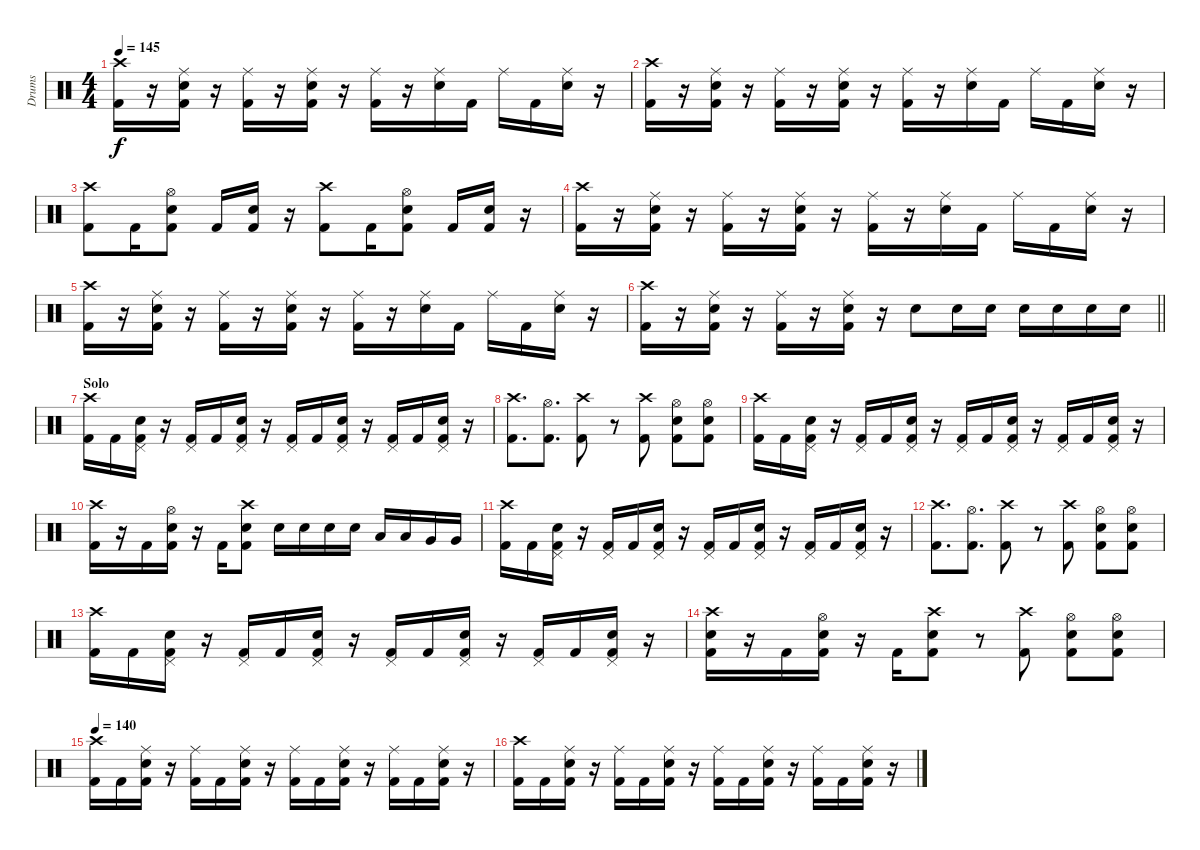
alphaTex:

\track ("Drums" "Drums") {instrument percussion}
\staff {score}
\articulation defaults
\ts (4 4)
\tempo 145
\clef neutral
\ks c
("Crash high (hit)" "Kick (hit) 2").16{dy f} r.16 ("Ride (middle)" "Snare (hit) 2" "Kick (hit) 2").16 r.16 ("Ride (middle)" "Kick (hit) 2").16 r.16 ("Ride (middle)" "Snare (hit) 2" "Kick (hit) 2").16 r.16 ("Ride (middle)" "Kick (hit) 2").16 r.16 ("Ride (middle)" "Snare (hit) 2").16 "Kick (hit) 2".16 "Ride (middle)".16 "Kick (hit) 2".16 ("Ride (middle)" "Snare (hit) 2").16 r.16 |
("Crash high (hit)" "Kick (hit) 2").16 r.16 ("Ride (middle)" "Snare (hit) 2" "Kick (hit) 2").16 r.16 ("Ride (middle)" "Kick (hit) 2").16 r.16 ("Ride (middle)" "Snare (hit) 2" "Kick (hit) 2").16 r.16 ("Ride (middle)" "Kick (hit) 2").16 r.16 ("Ride (middle)" "Snare (hit) 2").16 "Kick (hit) 2".16 "Ride (middle)".16 "Kick (hit) 2".16 ("Ride (middle)" "Snare (hit) 2").16 r.16 |
("Crash high (hit)" "Kick (hit) 2").8 "Kick (hit) 2".16 ("Hi-Hat (open)" "Snare (hit) 2" "Kick (hit) 2").8 "Kick (hit) 2".16 ("Snare (hit) 2" "Kick (hit) 2").16 r.16 ("Crash high (hit)" "Kick (hit) 2").8 "Kick (hit) 2".16 ("Hi-Hat (open)" "Snare (hit) 2" "Kick (hit) 2").8 "Kick (hit) 2".16 ("Snare (hit) 2" "Kick (hit) 2").16 r.16 |
("Crash high (hit)" "Kick (hit) 2").16 r.16 ("Ride (middle)" "Snare (hit) 2" "Kick (hit) 2").16 r.16 ("Ride (middle)" "Kick (hit) 2").16 r.16 ("Ride (middle)" "Snare (hit) 2" "Kick (hit) 2").16 r.16 ("Ride (middle)" "Kick (hit) 2").16 r.16 ("Ride (middle)" "Snare (hit) 2").16 "Kick (hit) 2".16 "Ride (middle)".16 "Kick (hit) 2".16 ("Ride (middle)" "Snare (hit) 2").16 r.16 |
("Crash high (hit)" "Kick (hit) 2").16 r.16 ("Ride (middle)" "Snare (hit) 2" "Kick (hit) 2").16 r.16 ("Ride (middle)" "Kick (hit) 2").16 r.16 ("Ride (middle)" "Snare (hit) 2" "Kick (hit) 2").16 r.16 ("Ride (middle)" "Kick (hit) 2").16 r.16 ("Ride (middle)" "Snare (hit) 2").16 "Kick (hit) 2".16 "Ride (middle)".16 "Kick (hit) 2".16 ("Ride (middle)" "Snare (hit) 2").16 r.16 |
\barLineRight lightlight
("Crash high (hit)" "Kick (hit) 2").16 r.16 ("Ride (middle)" "Snare (hit) 2" "Kick (hit) 2").16 r.16 ("Ride (middle)" "Kick (hit) 2").16 r.16 ("Ride (middle)" "Snare (hit) 2" "Kick (hit) 2").16 r.16 "Snare (hit) 2".8 "Snare (hit) 2".16 "Snare (hit) 2".16 "Snare (hit) 2".16 "Snare (hit) 2".16 "Snare (hit) 2".16 "Snare (hit) 2".16 |
\section ("" "Solo")
("Crash high (hit)" "Kick (hit) 2").16 "Kick (hit) 2".16 ("Pedal Hi-Hat (hit)" "Snare (hit) 2" "Kick (hit) 2").16 r.16 ("Pedal Hi-Hat (hit)" "Kick (hit) 2").16 "Kick (hit) 2".16 ("Pedal Hi-Hat (hit)" "Snare (hit) 2" "Kick (hit) 2").16 r.16 ("Pedal Hi-Hat (hit)" "Kick (hit) 2").16 "Kick (hit) 2".16 ("Pedal Hi-Hat (hit)" "Snare (hit) 2" "Kick (hit) 2").16 r.16 ("Pedal Hi-Hat (hit)" "Kick (hit) 2").16 "Kick (hit) 2".16 ("Pedal Hi-Hat (hit)" "Snare (hit) 2" "Kick (hit) 2").16 r.16 |
("Crash high (hit)" "Kick (hit) 2").8{d} ("Hi-Hat (open)" "Kick (hit) 2").8{d} ("Crash high (hit)" "Kick (hit) 2").8 r.8 ("Crash high (hit)" "Kick (hit) 2").8 ("Hi-Hat (open)" "Snare (hit) 2" "Kick (hit) 2").8 ("Hi-Hat (open)" "Snare (hit) 2" "Kick (hit) 2").8 |
("Crash high (hit)" "Kick (hit) 2").16 "Kick (hit) 2".16 ("Pedal Hi-Hat (hit)" "Snare (hit) 2" "Kick (hit) 2").16 r.16 ("Pedal Hi-Hat (hit)" "Kick (hit) 2").16 "Kick (hit) 2".16 ("Pedal Hi-Hat (hit)" "Snare (hit) 2" "Kick (hit) 2").16 r.16 ("Pedal Hi-Hat (hit)" "Kick (hit) 2").16 "Kick (hit) 2".16 ("Pedal Hi-Hat (hit)" "Snare (hit) 2" "Kick (hit) 2").16 r.16 ("Pedal Hi-Hat (hit)" "Kick (hit) 2").16 "Kick (hit) 2".16 ("Pedal Hi-Hat (hit)" "Snare (hit) 2" "Kick (hit) 2").16 r.16 |
("Crash high (hit)" "Kick (hit) 2").16 r.16 "Kick (hit) 2".16 ("Hi-Hat (open)" "Snare (hit) 2" "Kick (hit) 2").16 r.16 "Kick (hit) 2".16 ("Crash high (hit)" "Snare (hit) 2" "Kick (hit) 2").8 "Snare (hit) 2".16 "Snare (hit) 2".16 "Snare (hit) 2".16 "Snare (hit) 2".16 "Low Tom (hit)".16 "Low Tom (hit)".16 "Very Low Tom (hit)".16 "Very Low Tom (hit)".16 |
("Crash high (hit)" "Kick (hit) 2").16 "Kick (hit) 2".16 ("Pedal Hi-Hat (hit)" "Snare (hit) 2" "Kick (hit) 2").16 r.16 ("Pedal Hi-Hat (hit)" "Kick (hit) 2").16 "Kick (hit) 2".16 ("Pedal Hi-Hat (hit)" "Snare (hit) 2" "Kick (hit) 2").16 r.16 ("Pedal Hi-Hat (hit)" "Kick (hit) 2").16 "Kick (hit) 2".16 ("Pedal Hi-Hat (hit)" "Snare (hit) 2" "Kick (hit) 2").16 r.16 ("Pedal Hi-Hat (hit)" "Kick (hit) 2").16 "Kick (hit) 2".16 ("Pedal Hi-Hat (hit)" "Snare (hit) 2" "Kick (hit) 2").16 r.16 |
("Crash high (hit)" "Kick (hit) 2").8{d} ("Hi-Hat (open)" "Kick (hit) 2").8{d} ("Crash high (hit)" "Kick (hit) 2").8 r.8 ("Crash high (hit)" "Kick (hit) 2").8 ("Hi-Hat (open)" "Snare (hit) 2" "Kick (hit) 2").8 ("Hi-Hat (open)" "Snare (hit) 2" "Kick (hit) 2").8 |
("Crash high (hit)" "Kick (hit) 2").16 "Kick (hit) 2".16 ("Pedal Hi-Hat (hit)" "Snare (hit) 2" "Kick (hit) 2").16 r.16 ("Pedal Hi-Hat (hit)" "Kick (hit) 2").16 "Kick (hit) 2".16 ("Pedal Hi-Hat (hit)" "Snare (hit) 2" "Kick (hit) 2").16 r.16 ("Pedal Hi-Hat (hit)" "Kick (hit) 2").16 "Kick (hit) 2".16 ("Pedal Hi-Hat (hit)" "Snare (hit) 2" "Kick (hit) 2").16 r.16 ("Pedal Hi-Hat (hit)" "Kick (hit) 2").16 "Kick (hit) 2".16 ("Pedal Hi-Hat (hit)" "Snare (hit) 2" "Kick (hit) 2").16 r.16 |
("Crash high (hit)" "Snare (hit) 2" "Kick (hit) 2").16 r.16 "Kick (hit) 2".16 ("Hi-Hat (open)" "Snare (hit) 2" "Kick (hit) 2").16 r.16 "Kick (hit) 2".16 ("Crash high (hit)" "Snare (hit) 2" "Kick (hit) 2").8 r.8 ("Crash high (hit)" "Kick (hit) 2").8 ("Hi-Hat (open)" "Snare (hit) 2" "Kick (hit) 2").8 ("Hi-Hat (open)" "Snare (hit) 2" "Kick (hit) 2").8 |
\tempo 140
("Crash high (hit)" "Kick (hit) 2").16 "Kick (hit) 2".16 ("Ride (middle)" "Snare (hit) 2" "Kick (hit) 2").16 r.16 ("Ride (middle)" "Kick (hit) 2").16 "Kick (hit) 2".16 ("Ride (middle)" "Snare (hit) 2" "Kick (hit) 2").16 r.16 ("Ride (middle)" "Kick (hit) 2").16 "Kick (hit) 2".16 ("Ride (middle)" "Snare (hit) 2" "Kick (hit) 2").16 r.16 ("Ride (middle)" "Kick (hit) 2").16 "Kick (hit) 2".16 ("Ride (middle)" "Snare (hit) 2" "Kick (hit) 2").16 r.16 |
("Crash high (hit)" "Kick (hit) 2").16 "Kick (hit) 2".16 ("Ride (middle)" "Snare (hit) 2" "Kick (hit) 2").16 r.16 ("Ride (middle)" "Kick (hit) 2").16 "Kick (hit) 2".16 ("Ride (middle)" "Snare (hit) 2" "Kick (hit) 2").16 r.16 ("Ride (middle)" "Kick (hit) 2").16 "Kick (hit) 2".16 ("Ride (middle)" "Snare (hit) 2" "Kick (hit) 2").16 r.16 ("Ride (middle)" "Kick (hit) 2").16 "Kick (hit) 2".16 ("Ride (middle)" "Snare (hit) 2" "Kick (hit) 2").16 r.16
